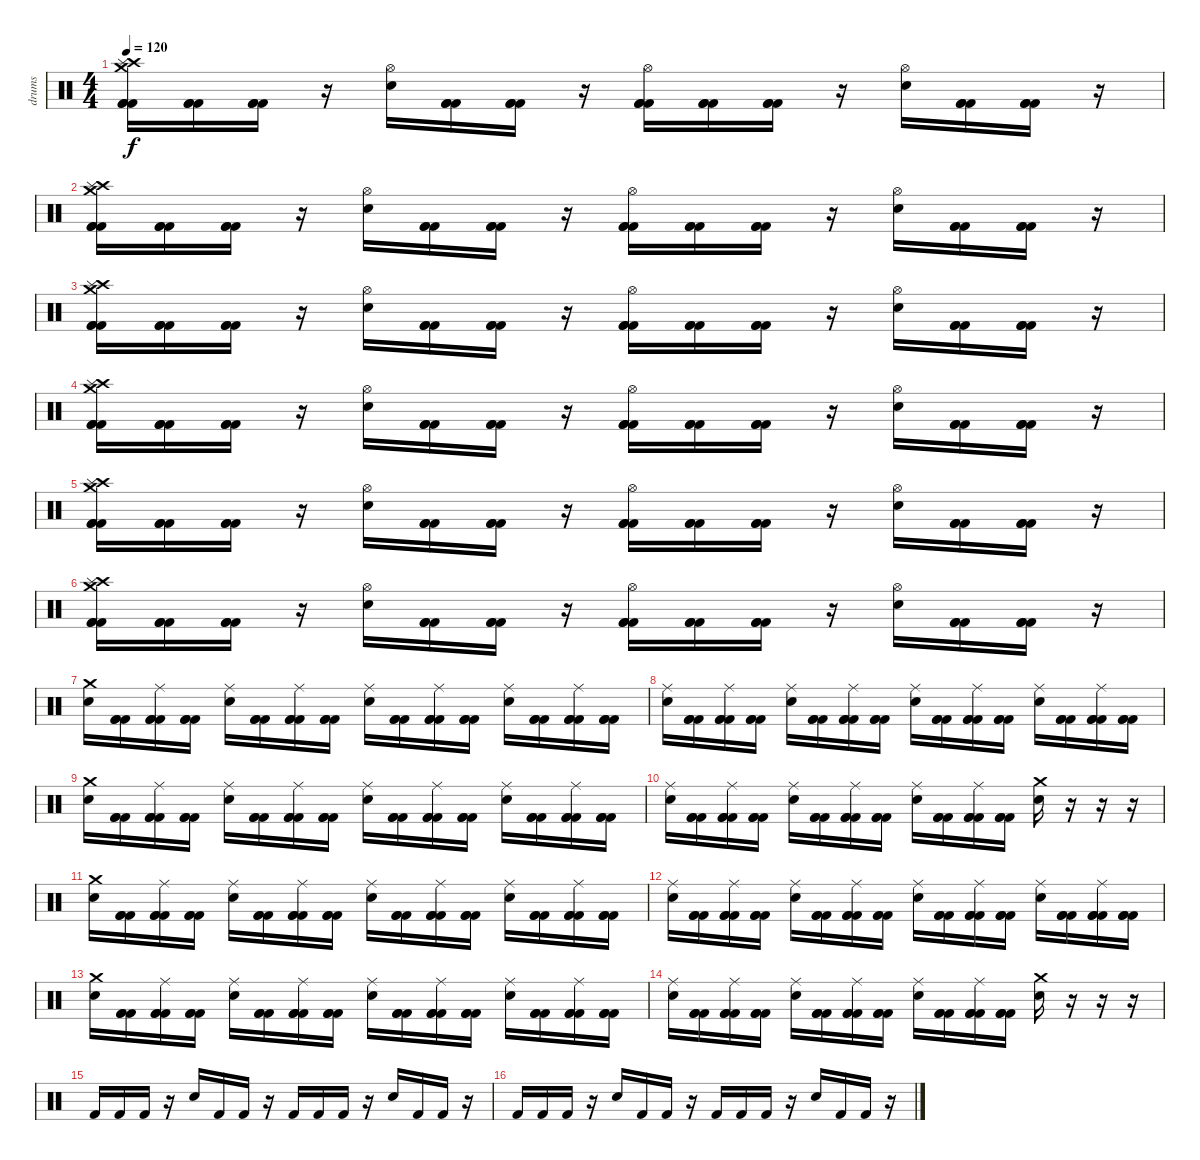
\track ("drums" "drums") {instrument percussion}
\staff {score}
\articulation defaults
\ts (4 4)
\tempo 120
\clef neutral
\ks c
("Crash medium (hit)" "Crash high (hit)" "Splash (hit)" "Kick (hit) 2" "Kick (hit) 2" "Kick (hit) 2").16{dy f} ("Kick (hit) 2" "Kick (hit) 2" "Kick (hit) 2").16 ("Kick (hit) 2" "Kick (hit) 2" "Kick (hit) 2").16 r.16 ("Hi-Hat (open)" "Electric Snare (hit)").16 ("Kick (hit) 2" "Kick (hit) 2" "Kick (hit) 2").16 ("Kick (hit) 2" "Kick (hit) 2" "Kick (hit) 2").16 r.16 ("Hi-Hat (open)" "Kick (hit) 2" "Kick (hit) 2" "Kick (hit) 2").16 ("Kick (hit) 2" "Kick (hit) 2" "Kick (hit) 2").16 ("Kick (hit) 2" "Kick (hit) 2" "Kick (hit) 2").16 r.16 ("Hi-Hat (open)" "Electric Snare (hit)").16 ("Kick (hit) 2" "Kick (hit) 2" "Kick (hit) 2").16 ("Kick (hit) 2" "Kick (hit) 2" "Kick (hit) 2").16 r.16 |
("Crash medium (hit)" "Crash high (hit)" "Splash (hit)" "Kick (hit) 2" "Kick (hit) 2" "Kick (hit) 2").16 ("Kick (hit) 2" "Kick (hit) 2" "Kick (hit) 2").16 ("Kick (hit) 2" "Kick (hit) 2" "Kick (hit) 2").16 r.16 ("Hi-Hat (open)" "Electric Snare (hit)").16 ("Kick (hit) 2" "Kick (hit) 2" "Kick (hit) 2").16 ("Kick (hit) 2" "Kick (hit) 2" "Kick (hit) 2").16 r.16 ("Hi-Hat (open)" "Kick (hit) 2" "Kick (hit) 2" "Kick (hit) 2").16 ("Kick (hit) 2" "Kick (hit) 2" "Kick (hit) 2").16 ("Kick (hit) 2" "Kick (hit) 2" "Kick (hit) 2").16 r.16 ("Hi-Hat (open)" "Electric Snare (hit)").16 ("Kick (hit) 2" "Kick (hit) 2" "Kick (hit) 2").16 ("Kick (hit) 2" "Kick (hit) 2" "Kick (hit) 2").16 r.16 |
("Crash medium (hit)" "Crash high (hit)" "Splash (hit)" "Kick (hit) 2" "Kick (hit) 2" "Kick (hit) 2").16 ("Kick (hit) 2" "Kick (hit) 2" "Kick (hit) 2").16 ("Kick (hit) 2" "Kick (hit) 2" "Kick (hit) 2").16 r.16 ("Hi-Hat (open)" "Electric Snare (hit)").16 ("Kick (hit) 2" "Kick (hit) 2" "Kick (hit) 2").16 ("Kick (hit) 2" "Kick (hit) 2" "Kick (hit) 2").16 r.16 ("Hi-Hat (open)" "Kick (hit) 2" "Kick (hit) 2" "Kick (hit) 2").16 ("Kick (hit) 2" "Kick (hit) 2" "Kick (hit) 2").16 ("Kick (hit) 2" "Kick (hit) 2" "Kick (hit) 2").16 r.16 ("Hi-Hat (open)" "Electric Snare (hit)").16 ("Kick (hit) 2" "Kick (hit) 2" "Kick (hit) 2").16 ("Kick (hit) 2" "Kick (hit) 2" "Kick (hit) 2").16 r.16 |
("Crash medium (hit)" "Crash high (hit)" "Splash (hit)" "Kick (hit) 2" "Kick (hit) 2" "Kick (hit) 2").16 ("Kick (hit) 2" "Kick (hit) 2" "Kick (hit) 2").16 ("Kick (hit) 2" "Kick (hit) 2" "Kick (hit) 2").16 r.16 ("Hi-Hat (open)" "Electric Snare (hit)").16 ("Kick (hit) 2" "Kick (hit) 2" "Kick (hit) 2").16 ("Kick (hit) 2" "Kick (hit) 2" "Kick (hit) 2").16 r.16 ("Hi-Hat (open)" "Kick (hit) 2" "Kick (hit) 2" "Kick (hit) 2").16 ("Kick (hit) 2" "Kick (hit) 2" "Kick (hit) 2").16 ("Kick (hit) 2" "Kick (hit) 2" "Kick (hit) 2").16 r.16 ("Hi-Hat (open)" "Electric Snare (hit)").16 ("Kick (hit) 2" "Kick (hit) 2" "Kick (hit) 2").16 ("Kick (hit) 2" "Kick (hit) 2" "Kick (hit) 2").16 r.16 |
("Crash medium (hit)" "Crash high (hit)" "Splash (hit)" "Kick (hit) 2" "Kick (hit) 2" "Kick (hit) 2").16 ("Kick (hit) 2" "Kick (hit) 2" "Kick (hit) 2").16 ("Kick (hit) 2" "Kick (hit) 2" "Kick (hit) 2").16 r.16 ("Hi-Hat (open)" "Electric Snare (hit)").16 ("Kick (hit) 2" "Kick (hit) 2" "Kick (hit) 2").16 ("Kick (hit) 2" "Kick (hit) 2" "Kick (hit) 2").16 r.16 ("Hi-Hat (open)" "Kick (hit) 2" "Kick (hit) 2" "Kick (hit) 2").16 ("Kick (hit) 2" "Kick (hit) 2" "Kick (hit) 2").16 ("Kick (hit) 2" "Kick (hit) 2" "Kick (hit) 2").16 r.16 ("Hi-Hat (open)" "Electric Snare (hit)").16 ("Kick (hit) 2" "Kick (hit) 2" "Kick (hit) 2").16 ("Kick (hit) 2" "Kick (hit) 2" "Kick (hit) 2").16 r.16 |
("Crash medium (hit)" "Crash high (hit)" "Splash (hit)" "Kick (hit) 2" "Kick (hit) 2" "Kick (hit) 2").16 ("Kick (hit) 2" "Kick (hit) 2" "Kick (hit) 2").16 ("Kick (hit) 2" "Kick (hit) 2" "Kick (hit) 2").16 r.16 ("Hi-Hat (open)" "Electric Snare (hit)").16 ("Kick (hit) 2" "Kick (hit) 2" "Kick (hit) 2").16 ("Kick (hit) 2" "Kick (hit) 2" "Kick (hit) 2").16 r.16 ("Hi-Hat (open)" "Kick (hit) 2" "Kick (hit) 2" "Kick (hit) 2").16 ("Kick (hit) 2" "Kick (hit) 2" "Kick (hit) 2").16 ("Kick (hit) 2" "Kick (hit) 2" "Kick (hit) 2").16 r.16 ("Hi-Hat (open)" "Electric Snare (hit)").16 ("Kick (hit) 2" "Kick (hit) 2" "Kick (hit) 2").16 ("Kick (hit) 2" "Kick (hit) 2" "Kick (hit) 2").16 r.16 |
("Crash medium (hit)" "Electric Snare (hit)").16 ("Kick (hit) 2" "Kick (hit) 2" "Kick (hit) 2").16 ("Ride (middle)" "Kick (hit) 2" "Kick (hit) 2" "Kick (hit) 2").16 ("Kick (hit) 2" "Kick (hit) 2" "Kick (hit) 2").16 ("Ride (middle)" "Electric Snare (hit)").16 ("Kick (hit) 2" "Kick (hit) 2" "Kick (hit) 2").16 ("Ride (middle)" "Kick (hit) 2" "Kick (hit) 2" "Kick (hit) 2").16 ("Kick (hit) 2" "Kick (hit) 2" "Kick (hit) 2").16 ("Ride (middle)" "Electric Snare (hit)").16 ("Kick (hit) 2" "Kick (hit) 2" "Kick (hit) 2").16 ("Ride (middle)" "Kick (hit) 2" "Kick (hit) 2" "Kick (hit) 2").16 ("Kick (hit) 2" "Kick (hit) 2" "Kick (hit) 2").16 ("Ride (middle)" "Electric Snare (hit)").16 ("Kick (hit) 2" "Kick (hit) 2" "Kick (hit) 2").16 ("Ride (middle)" "Kick (hit) 2" "Kick (hit) 2" "Kick (hit) 2").16 ("Kick (hit) 2" "Kick (hit) 2" "Kick (hit) 2").16 |
("Ride (middle)" "Electric Snare (hit)").16 ("Kick (hit) 2" "Kick (hit) 2" "Kick (hit) 2").16 ("Ride (middle)" "Kick (hit) 2" "Kick (hit) 2" "Kick (hit) 2").16 ("Kick (hit) 2" "Kick (hit) 2" "Kick (hit) 2").16 ("Ride (middle)" "Electric Snare (hit)").16 ("Kick (hit) 2" "Kick (hit) 2" "Kick (hit) 2").16 ("Ride (middle)" "Kick (hit) 2" "Kick (hit) 2" "Kick (hit) 2").16 ("Kick (hit) 2" "Kick (hit) 2" "Kick (hit) 2").16 ("Ride (middle)" "Electric Snare (hit)").16 ("Kick (hit) 2" "Kick (hit) 2" "Kick (hit) 2").16 ("Ride (middle)" "Kick (hit) 2" "Kick (hit) 2" "Kick (hit) 2").16 ("Kick (hit) 2" "Kick (hit) 2" "Kick (hit) 2").16 ("Ride (middle)" "Electric Snare (hit)").16 ("Kick (hit) 2" "Kick (hit) 2" "Kick (hit) 2").16 ("Ride (middle)" "Kick (hit) 2" "Kick (hit) 2" "Kick (hit) 2").16 ("Kick (hit) 2" "Kick (hit) 2" "Kick (hit) 2").16 |
("Crash medium (hit)" "Electric Snare (hit)").16 ("Kick (hit) 2" "Kick (hit) 2" "Kick (hit) 2").16 ("Ride (middle)" "Kick (hit) 2" "Kick (hit) 2" "Kick (hit) 2").16 ("Kick (hit) 2" "Kick (hit) 2" "Kick (hit) 2").16 ("Ride (middle)" "Electric Snare (hit)").16 ("Kick (hit) 2" "Kick (hit) 2" "Kick (hit) 2").16 ("Ride (middle)" "Kick (hit) 2" "Kick (hit) 2" "Kick (hit) 2").16 ("Kick (hit) 2" "Kick (hit) 2" "Kick (hit) 2").16 ("Ride (middle)" "Electric Snare (hit)").16 ("Kick (hit) 2" "Kick (hit) 2" "Kick (hit) 2").16 ("Ride (middle)" "Kick (hit) 2" "Kick (hit) 2" "Kick (hit) 2").16 ("Kick (hit) 2" "Kick (hit) 2" "Kick (hit) 2").16 ("Ride (middle)" "Electric Snare (hit)").16 ("Kick (hit) 2" "Kick (hit) 2" "Kick (hit) 2").16 ("Ride (middle)" "Kick (hit) 2" "Kick (hit) 2" "Kick (hit) 2").16 ("Kick (hit) 2" "Kick (hit) 2" "Kick (hit) 2").16 |
("Ride (middle)" "Electric Snare (hit)").16 ("Kick (hit) 2" "Kick (hit) 2" "Kick (hit) 2").16 ("Ride (middle)" "Kick (hit) 2" "Kick (hit) 2" "Kick (hit) 2").16 ("Kick (hit) 2" "Kick (hit) 2" "Kick (hit) 2").16 ("Ride (middle)" "Electric Snare (hit)").16 ("Kick (hit) 2" "Kick (hit) 2" "Kick (hit) 2").16 ("Ride (middle)" "Kick (hit) 2" "Kick (hit) 2" "Kick (hit) 2").16 ("Kick (hit) 2" "Kick (hit) 2" "Kick (hit) 2").16 ("Ride (middle)" "Electric Snare (hit)").16 ("Kick (hit) 2" "Kick (hit) 2" "Kick (hit) 2").16 ("Ride (middle)" "Kick (hit) 2" "Kick (hit) 2" "Kick (hit) 2").16 ("Kick (hit) 2" "Kick (hit) 2" "Kick (hit) 2").16 ("Crash medium (hit)" "Electric Snare (hit)").16 r.16 r.16 r.16 |
("Crash medium (hit)" "Electric Snare (hit)").16 ("Kick (hit) 2" "Kick (hit) 2" "Kick (hit) 2").16 ("Ride (middle)" "Kick (hit) 2" "Kick (hit) 2" "Kick (hit) 2").16 ("Kick (hit) 2" "Kick (hit) 2" "Kick (hit) 2").16 ("Ride (middle)" "Electric Snare (hit)").16 ("Kick (hit) 2" "Kick (hit) 2" "Kick (hit) 2").16 ("Ride (middle)" "Kick (hit) 2" "Kick (hit) 2" "Kick (hit) 2").16 ("Kick (hit) 2" "Kick (hit) 2" "Kick (hit) 2").16 ("Ride (middle)" "Electric Snare (hit)").16 ("Kick (hit) 2" "Kick (hit) 2" "Kick (hit) 2").16 ("Ride (middle)" "Kick (hit) 2" "Kick (hit) 2" "Kick (hit) 2").16 ("Kick (hit) 2" "Kick (hit) 2" "Kick (hit) 2").16 ("Ride (middle)" "Electric Snare (hit)").16 ("Kick (hit) 2" "Kick (hit) 2" "Kick (hit) 2").16 ("Ride (middle)" "Kick (hit) 2" "Kick (hit) 2" "Kick (hit) 2").16 ("Kick (hit) 2" "Kick (hit) 2" "Kick (hit) 2").16 |
("Ride (middle)" "Electric Snare (hit)").16 ("Kick (hit) 2" "Kick (hit) 2" "Kick (hit) 2").16 ("Ride (middle)" "Kick (hit) 2" "Kick (hit) 2" "Kick (hit) 2").16 ("Kick (hit) 2" "Kick (hit) 2" "Kick (hit) 2").16 ("Ride (middle)" "Electric Snare (hit)").16 ("Kick (hit) 2" "Kick (hit) 2" "Kick (hit) 2").16 ("Ride (middle)" "Kick (hit) 2" "Kick (hit) 2" "Kick (hit) 2").16 ("Kick (hit) 2" "Kick (hit) 2" "Kick (hit) 2").16 ("Ride (middle)" "Electric Snare (hit)").16 ("Kick (hit) 2" "Kick (hit) 2" "Kick (hit) 2").16 ("Ride (middle)" "Kick (hit) 2" "Kick (hit) 2" "Kick (hit) 2").16 ("Kick (hit) 2" "Kick (hit) 2" "Kick (hit) 2").16 ("Ride (middle)" "Electric Snare (hit)").16 ("Kick (hit) 2" "Kick (hit) 2" "Kick (hit) 2").16 ("Ride (middle)" "Kick (hit) 2" "Kick (hit) 2" "Kick (hit) 2").16 ("Kick (hit) 2" "Kick (hit) 2" "Kick (hit) 2").16 |
("Crash medium (hit)" "Electric Snare (hit)").16 ("Kick (hit) 2" "Kick (hit) 2" "Kick (hit) 2").16 ("Ride (middle)" "Kick (hit) 2" "Kick (hit) 2" "Kick (hit) 2").16 ("Kick (hit) 2" "Kick (hit) 2" "Kick (hit) 2").16 ("Ride (middle)" "Electric Snare (hit)").16 ("Kick (hit) 2" "Kick (hit) 2" "Kick (hit) 2").16 ("Ride (middle)" "Kick (hit) 2" "Kick (hit) 2" "Kick (hit) 2").16 ("Kick (hit) 2" "Kick (hit) 2" "Kick (hit) 2").16 ("Ride (middle)" "Electric Snare (hit)").16 ("Kick (hit) 2" "Kick (hit) 2" "Kick (hit) 2").16 ("Ride (middle)" "Kick (hit) 2" "Kick (hit) 2" "Kick (hit) 2").16 ("Kick (hit) 2" "Kick (hit) 2" "Kick (hit) 2").16 ("Ride (middle)" "Electric Snare (hit)").16 ("Kick (hit) 2" "Kick (hit) 2" "Kick (hit) 2").16 ("Ride (middle)" "Kick (hit) 2" "Kick (hit) 2" "Kick (hit) 2").16 ("Kick (hit) 2" "Kick (hit) 2" "Kick (hit) 2").16 |
("Ride (middle)" "Electric Snare (hit)").16 ("Kick (hit) 2" "Kick (hit) 2" "Kick (hit) 2").16 ("Ride (middle)" "Kick (hit) 2" "Kick (hit) 2" "Kick (hit) 2").16 ("Kick (hit) 2" "Kick (hit) 2" "Kick (hit) 2").16 ("Ride (middle)" "Electric Snare (hit)").16 ("Kick (hit) 2" "Kick (hit) 2" "Kick (hit) 2").16 ("Ride (middle)" "Kick (hit) 2" "Kick (hit) 2" "Kick (hit) 2").16 ("Kick (hit) 2" "Kick (hit) 2" "Kick (hit) 2").16 ("Ride (middle)" "Electric Snare (hit)").16 ("Kick (hit) 2" "Kick (hit) 2" "Kick (hit) 2").16 ("Ride (middle)" "Kick (hit) 2" "Kick (hit) 2" "Kick (hit) 2").16 ("Kick (hit) 2" "Kick (hit) 2" "Kick (hit) 2").16 ("Crash medium (hit)" "Electric Snare (hit)").16 r.16 r.16 r.16 |
"Kick (hit) 2".16 "Kick (hit) 2".16 "Kick (hit) 2".16 r.16 "Electric Snare (hit)".16 "Kick (hit) 2".16 "Kick (hit) 2".16 r.16 "Kick (hit) 2".16 "Kick (hit) 2".16 "Kick (hit) 2".16 r.16 "Electric Snare (hit)".16 "Kick (hit) 2".16 "Kick (hit) 2".16 r.16 |
"Kick (hit) 2".16 "Kick (hit) 2".16 "Kick (hit) 2".16 r.16 "Electric Snare (hit)".16 "Kick (hit) 2".16 "Kick (hit) 2".16 r.16 "Kick (hit) 2".16 "Kick (hit) 2".16 "Kick (hit) 2".16 r.16 "Electric Snare (hit)".16 "Kick (hit) 2".16 "Kick (hit) 2".16 r.16
